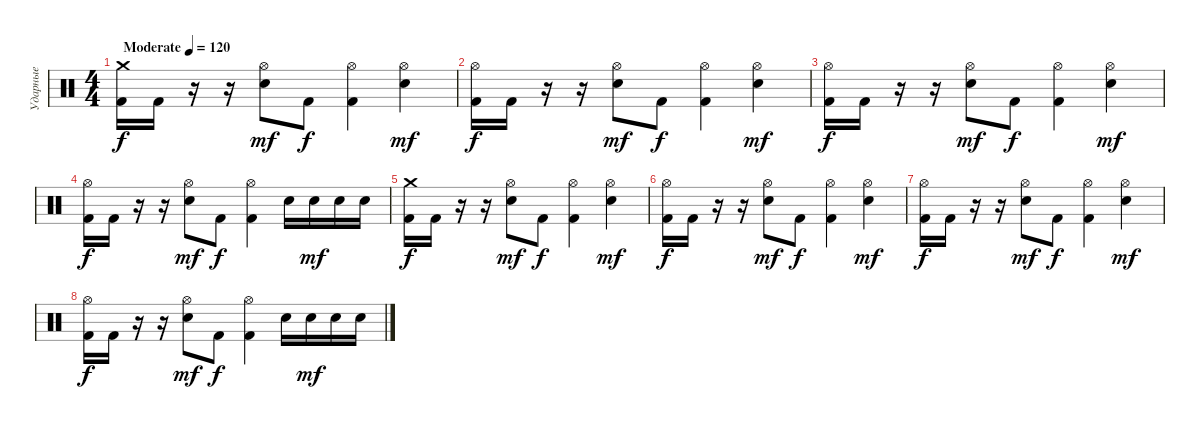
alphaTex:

\track ("Ударные" "Ударные") {instrument percussion}
\staff {score}
\articulation defaults
\ts (4 4)
\tempo (120 "Moderate")
\clef neutral
\ks c
("Crash medium (hit)" "Kick (hit) 2").16{dy f} "Kick (hit) 2".16 r.16 r.16 ("Hi-Hat (open)" "Electric Snare (hit)").8{dy mf} "Kick (hit) 2".8{dy f} ("Hi-Hat (open)" "Kick (hit) 2").4 ("Hi-Hat (open)" "Electric Snare (hit)").4{dy mf} |
("Hi-Hat (open)" "Kick (hit) 2").16{dy f} "Kick (hit) 2".16 r.16 r.16 ("Hi-Hat (open)" "Electric Snare (hit)").8{dy mf} "Kick (hit) 2".8{dy f} ("Hi-Hat (open)" "Kick (hit) 2").4 ("Hi-Hat (open)" "Electric Snare (hit)").4{dy mf} |
("Hi-Hat (open)" "Kick (hit) 2").16{dy f} "Kick (hit) 2".16 r.16 r.16 ("Hi-Hat (open)" "Electric Snare (hit)").8{dy mf} "Kick (hit) 2".8{dy f} ("Hi-Hat (open)" "Kick (hit) 2").4 ("Hi-Hat (open)" "Electric Snare (hit)").4{dy mf} |
("Hi-Hat (open)" "Kick (hit) 2").16{dy f} "Kick (hit) 2".16 r.16 r.16 ("Hi-Hat (open)" "Electric Snare (hit)").8{dy mf} "Kick (hit) 2".8{dy f} ("Hi-Hat (open)" "Kick (hit) 2").4 "Electric Snare (hit)".16 "Electric Snare (hit)".16{dy mf} "Electric Snare (hit)".16 "Electric Snare (hit)".16 |
("Crash medium (hit)" "Kick (hit) 2").16{dy f} "Kick (hit) 2".16 r.16 r.16 ("Hi-Hat (open)" "Electric Snare (hit)").8{dy mf} "Kick (hit) 2".8{dy f} ("Hi-Hat (open)" "Kick (hit) 2").4 ("Hi-Hat (open)" "Electric Snare (hit)").4{dy mf} |
("Hi-Hat (open)" "Kick (hit) 2").16{dy f} "Kick (hit) 2".16 r.16 r.16 ("Hi-Hat (open)" "Electric Snare (hit)").8{dy mf} "Kick (hit) 2".8{dy f} ("Hi-Hat (open)" "Kick (hit) 2").4 ("Hi-Hat (open)" "Electric Snare (hit)").4{dy mf} |
("Hi-Hat (open)" "Kick (hit) 2").16{dy f} "Kick (hit) 2".16 r.16 r.16 ("Hi-Hat (open)" "Electric Snare (hit)").8{dy mf} "Kick (hit) 2".8{dy f} ("Hi-Hat (open)" "Kick (hit) 2").4 ("Hi-Hat (open)" "Electric Snare (hit)").4{dy mf} |
("Hi-Hat (open)" "Kick (hit) 2").16{dy f} "Kick (hit) 2".16 r.16 r.16 ("Hi-Hat (open)" "Electric Snare (hit)").8{dy mf} "Kick (hit) 2".8{dy f} ("Hi-Hat (open)" "Kick (hit) 2").4 "Electric Snare (hit)".16 "Electric Snare (hit)".16{dy mf} "Electric Snare (hit)".16 "Electric Snare (hit)".16
